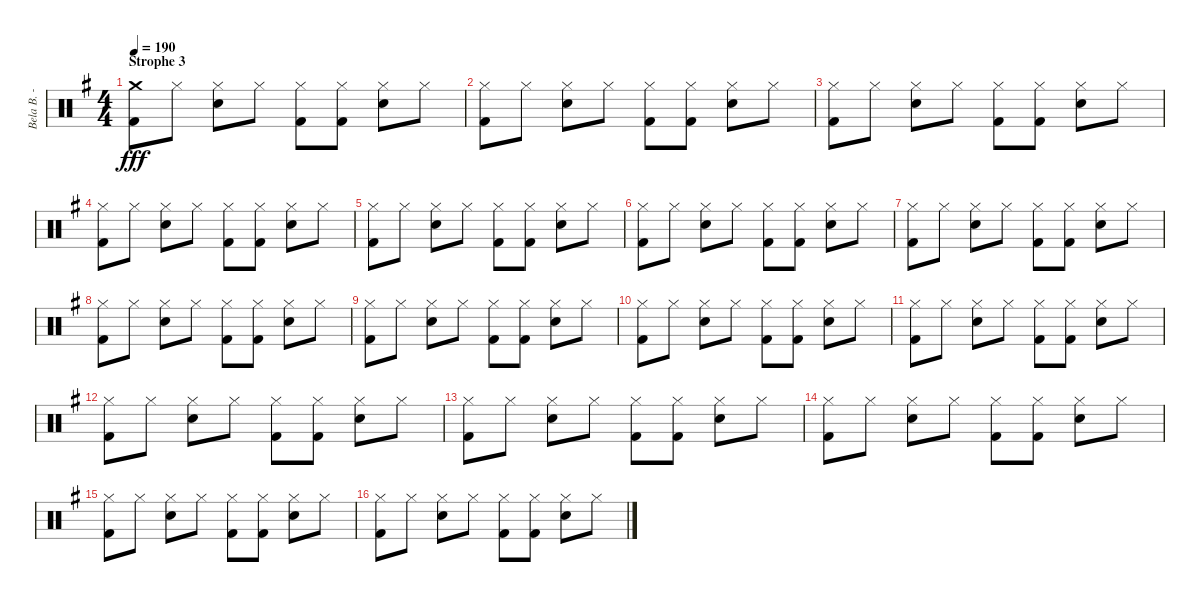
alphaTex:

\track ("Bela B. - Drums" "Bela B. - ") {instrument percussion}
\staff {score}
\articulation defaults
\ts (4 4)
\section ("" "Strophe 3")
\tempo 190
\clef neutral
\ks g
("Crash medium (hit)" "Kick (hit) 2").8{dy fff} "Hi-Hat (closed)".8 ("Hi-Hat (closed)" "Snare (hit) 2").8 "Hi-Hat (closed)".8 ("Hi-Hat (closed)" "Kick (hit) 2").8 ("Hi-Hat (closed)" "Kick (hit) 2").8 ("Hi-Hat (closed)" "Snare (hit) 2").8 "Hi-Hat (closed)".8 |
("Hi-Hat (closed)" "Kick (hit) 2").8 "Hi-Hat (closed)".8 ("Hi-Hat (closed)" "Snare (hit) 2").8 "Hi-Hat (closed)".8 ("Hi-Hat (closed)" "Kick (hit) 2").8 ("Hi-Hat (closed)" "Kick (hit) 2").8 ("Hi-Hat (closed)" "Snare (hit) 2").8 "Hi-Hat (closed)".8 |
("Hi-Hat (closed)" "Kick (hit) 2").8 "Hi-Hat (closed)".8 ("Hi-Hat (closed)" "Snare (hit) 2").8 "Hi-Hat (closed)".8 ("Hi-Hat (closed)" "Kick (hit) 2").8 ("Hi-Hat (closed)" "Kick (hit) 2").8 ("Hi-Hat (closed)" "Snare (hit) 2").8 "Hi-Hat (closed)".8 |
("Hi-Hat (closed)" "Kick (hit) 2").8 "Hi-Hat (closed)".8 ("Hi-Hat (closed)" "Snare (hit) 2").8 "Hi-Hat (closed)".8 ("Hi-Hat (closed)" "Kick (hit) 2").8 ("Hi-Hat (closed)" "Kick (hit) 2").8 ("Hi-Hat (closed)" "Snare (hit) 2").8 "Hi-Hat (closed)".8 |
("Hi-Hat (closed)" "Kick (hit) 2").8 "Hi-Hat (closed)".8 ("Hi-Hat (closed)" "Snare (hit) 2").8 "Hi-Hat (closed)".8 ("Hi-Hat (closed)" "Kick (hit) 2").8 ("Hi-Hat (closed)" "Kick (hit) 2").8 ("Hi-Hat (closed)" "Snare (hit) 2").8 "Hi-Hat (closed)".8 |
("Hi-Hat (closed)" "Kick (hit) 2").8 "Hi-Hat (closed)".8 ("Hi-Hat (closed)" "Snare (hit) 2").8 "Hi-Hat (closed)".8 ("Hi-Hat (closed)" "Kick (hit) 2").8 ("Hi-Hat (closed)" "Kick (hit) 2").8 ("Hi-Hat (closed)" "Snare (hit) 2").8 "Hi-Hat (closed)".8 |
("Hi-Hat (closed)" "Kick (hit) 2").8 "Hi-Hat (closed)".8 ("Hi-Hat (closed)" "Snare (hit) 2").8 "Hi-Hat (closed)".8 ("Hi-Hat (closed)" "Kick (hit) 2").8 ("Hi-Hat (closed)" "Kick (hit) 2").8 ("Hi-Hat (closed)" "Snare (hit) 2").8 "Hi-Hat (closed)".8 |
("Hi-Hat (closed)" "Kick (hit) 2").8 "Hi-Hat (closed)".8 ("Hi-Hat (closed)" "Snare (hit) 2").8 "Hi-Hat (closed)".8 ("Hi-Hat (closed)" "Kick (hit) 2").8 ("Hi-Hat (closed)" "Kick (hit) 2").8 ("Hi-Hat (closed)" "Snare (hit) 2").8 "Hi-Hat (closed)".8 |
("Hi-Hat (closed)" "Kick (hit) 2").8 "Hi-Hat (closed)".8 ("Hi-Hat (closed)" "Snare (hit) 2").8 "Hi-Hat (closed)".8 ("Hi-Hat (closed)" "Kick (hit) 2").8 ("Hi-Hat (closed)" "Kick (hit) 2").8 ("Hi-Hat (closed)" "Snare (hit) 2").8 "Hi-Hat (closed)".8 |
("Hi-Hat (closed)" "Kick (hit) 2").8 "Hi-Hat (closed)".8 ("Hi-Hat (closed)" "Snare (hit) 2").8 "Hi-Hat (closed)".8 ("Hi-Hat (closed)" "Kick (hit) 2").8 ("Hi-Hat (closed)" "Kick (hit) 2").8 ("Hi-Hat (closed)" "Snare (hit) 2").8 "Hi-Hat (closed)".8 |
("Hi-Hat (closed)" "Kick (hit) 2").8 "Hi-Hat (closed)".8 ("Hi-Hat (closed)" "Snare (hit) 2").8 "Hi-Hat (closed)".8 ("Hi-Hat (closed)" "Kick (hit) 2").8 ("Hi-Hat (closed)" "Kick (hit) 2").8 ("Hi-Hat (closed)" "Snare (hit) 2").8 "Hi-Hat (closed)".8 |
("Hi-Hat (closed)" "Kick (hit) 2").8 "Hi-Hat (closed)".8 ("Hi-Hat (closed)" "Snare (hit) 2").8 "Hi-Hat (closed)".8 ("Hi-Hat (closed)" "Kick (hit) 2").8 ("Hi-Hat (closed)" "Kick (hit) 2").8 ("Hi-Hat (closed)" "Snare (hit) 2").8 "Hi-Hat (closed)".8 |
("Hi-Hat (closed)" "Kick (hit) 2").8 "Hi-Hat (closed)".8 ("Hi-Hat (closed)" "Snare (hit) 2").8 "Hi-Hat (closed)".8 ("Hi-Hat (closed)" "Kick (hit) 2").8 ("Hi-Hat (closed)" "Kick (hit) 2").8 ("Hi-Hat (closed)" "Snare (hit) 2").8 "Hi-Hat (closed)".8 |
("Hi-Hat (closed)" "Kick (hit) 2").8 "Hi-Hat (closed)".8 ("Hi-Hat (closed)" "Snare (hit) 2").8 "Hi-Hat (closed)".8 ("Hi-Hat (closed)" "Kick (hit) 2").8 ("Hi-Hat (closed)" "Kick (hit) 2").8 ("Hi-Hat (closed)" "Snare (hit) 2").8 "Hi-Hat (closed)".8 |
("Hi-Hat (closed)" "Kick (hit) 2").8 "Hi-Hat (closed)".8 ("Hi-Hat (closed)" "Snare (hit) 2").8 "Hi-Hat (closed)".8 ("Hi-Hat (closed)" "Kick (hit) 2").8 ("Hi-Hat (closed)" "Kick (hit) 2").8 ("Hi-Hat (closed)" "Snare (hit) 2").8 "Hi-Hat (closed)".8 |
("Hi-Hat (closed)" "Kick (hit) 2").8 "Hi-Hat (closed)".8 ("Hi-Hat (closed)" "Snare (hit) 2").8 "Hi-Hat (closed)".8 ("Hi-Hat (closed)" "Kick (hit) 2").8 ("Hi-Hat (closed)" "Kick (hit) 2").8 ("Hi-Hat (closed)" "Snare (hit) 2").8 "Hi-Hat (closed)".8
